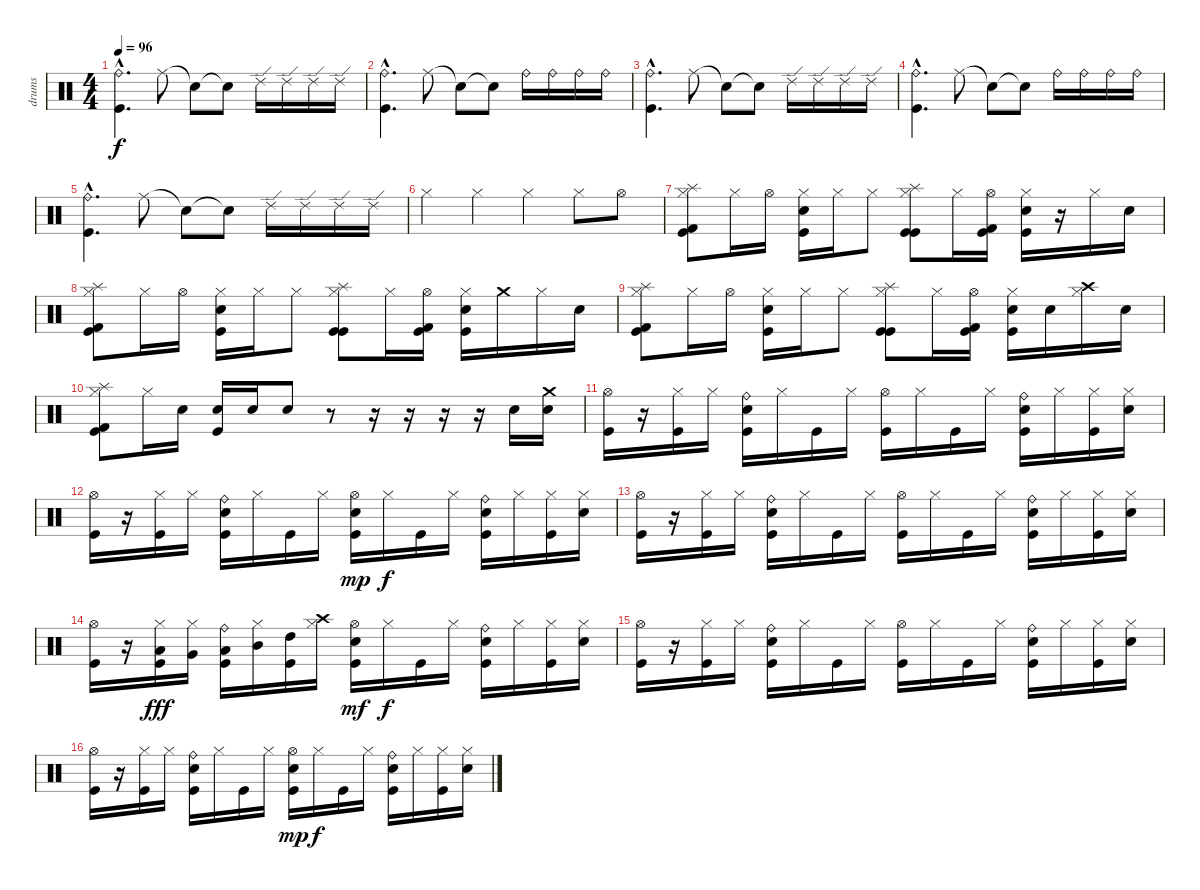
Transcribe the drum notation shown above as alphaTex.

\track ("drums" "drums") {instrument percussion}
\staff {score}
\articulation defaults
\ts (4 4)
\tempo 96
\clef neutral
\ks c
("Ride (bell)"{hac} "Kick (hit)"{hac}).4{d dy f} "Ride (middle)".8 "Snare (hit)"{t}.8 "Snare (hit)"{t}.8 "Ride (edge) 2".16 "Ride (edge) 2".16 "Ride (edge) 2".16 "Ride (edge) 2".16 |
("Ride (bell)"{hac} "Kick (hit)"{hac}).4{d} "Ride (middle)".8 "Snare (hit)"{t}.8 "Snare (hit)"{t}.8 "Ride (bell)".16 "Ride (bell)".16 "Ride (bell)".16 "Ride (bell)".16 |
("Ride (bell)"{hac} "Kick (hit)"{hac}).4{d} "Ride (middle)".8 "Snare (hit)"{t}.8 "Snare (hit)"{t}.8 "Ride (edge) 2".16 "Ride (edge) 2".16 "Ride (edge) 2".16 "Ride (edge) 2".16 |
("Ride (bell)"{hac} "Kick (hit)"{hac}).4{d} "Ride (middle)".8 "Snare (hit)"{t}.8 "Snare (hit)"{t}.8 "Ride (bell)".16 "Ride (bell)".16 "Ride (bell)".16 "Ride (bell)".16 |
("Ride (bell)"{hac} "Kick (hit)"{hac}).4{d} "Ride (middle)".8 "Snare (hit)"{t}.8 "Snare (hit)"{t}.8 "Ride (edge) 2".16 "Ride (edge) 2".16 "Ride (edge) 2".16 "Ride (edge) 2".16 |
"Hi-Hat (closed)".4 "Hi-Hat (closed)".4 "Hi-Hat (closed)".4 "Hi-Hat (closed)".8 "Hi-Hat (open)".8 |
("Hi-Hat (closed)" "Splash (hit)" "Kick (hit) 2" "Kick (hit)").8 "Hi-Hat (closed)".16 "Hi-Hat (open)".16 ("Hi-Hat (closed)" "Electric Snare (hit)" "Kick (hit)").16 "Hi-Hat (closed)".16 "Hi-Hat (closed)".8 ("Hi-Hat (closed)" "Splash (hit)" "Kick (hit)" "Kick (hit)").8 "Hi-Hat (closed)".16 ("Hi-Hat (open)" "Kick (hit)" "Kick (hit) 2").16 ("Hi-Hat (closed)" "Electric Snare (hit)" "Kick (hit)").16 r.16 "Hi-Hat (closed)".16 "Electric Snare (hit)".16 |
("Hi-Hat (closed)" "Splash (hit)" "Kick (hit) 2" "Kick (hit)").8 "Hi-Hat (closed)".16 "Hi-Hat (open)".16 ("Hi-Hat (closed)" "Electric Snare (hit)" "Kick (hit)").16 "Hi-Hat (closed)".16 "Hi-Hat (closed)".8 ("Hi-Hat (closed)" "Splash (hit)" "Kick (hit)" "Kick (hit)").8 "Hi-Hat (closed)".16 ("Hi-Hat (open)" "Kick (hit)" "Kick (hit) 2").16 ("Hi-Hat (closed)" "Electric Snare (hit)" "Kick (hit)").16 "Crash medium (hit)".16 "Hi-Hat (closed)".16 "Electric Snare (hit)".16 |
("Hi-Hat (closed)" "Splash (hit)" "Kick (hit) 2" "Kick (hit)").8 "Hi-Hat (closed)".16 "Hi-Hat (open)".16 ("Hi-Hat (closed)" "Electric Snare (hit)" "Kick (hit)").16 "Hi-Hat (closed)".16 "Hi-Hat (closed)".8 ("Hi-Hat (closed)" "Splash (hit)" "Kick (hit)" "Kick (hit)").8 "Hi-Hat (closed)".16 ("Hi-Hat (open)" "Kick (hit)" "Kick (hit) 2").16 ("Hi-Hat (closed)" "Electric Snare (hit)" "Kick (hit)").16 "Electric Snare (hit)".16 ("Hi-Hat (closed)" "Crash high (hit)").16 "Electric Snare (hit)".16 |
("Hi-Hat (closed)" "Splash (hit)" "Kick (hit) 2" "Kick (hit)").8 "Hi-Hat (closed)".16 "Electric Snare (hit)".16 ("Electric Snare (hit)" "Kick (hit)").16 "Electric Snare (hit)".16 "Electric Snare (hit)".8 r.8 r.16 r.16 r.16 r.16 "Electric Snare (hit)".16 ("Crash medium (hit)" "Electric Snare (hit)").16 |
("Hi-Hat (open)" "Kick (hit)").16 r.16 ("Hi-Hat (closed)" "Kick (hit)").16 "Hi-Hat (closed)".16 ("Ride (bell)" "Electric Snare (hit)" "Kick (hit)").16 "Hi-Hat (closed)".16 "Kick (hit)".16 "Hi-Hat (closed)".16 ("Hi-Hat (open)" "Kick (hit)").16 "Hi-Hat (closed)".16 "Kick (hit)".16 "Hi-Hat (closed)".16 ("Ride (bell)" "Electric Snare (hit)" "Kick (hit)").16 "Hi-Hat (closed)".16 ("Hi-Hat (closed)" "Kick (hit)").16 ("Hi-Hat (closed)" "Electric Snare (hit)").16 |
("Hi-Hat (open)" "Kick (hit)").16 r.16 ("Hi-Hat (closed)" "Kick (hit)").16 "Hi-Hat (closed)".16 ("Ride (bell)" "Electric Snare (hit)" "Kick (hit)").16 "Hi-Hat (closed)".16 "Kick (hit)".16 "Hi-Hat (closed)".16 ("Hi-Hat (open)" "Electric Snare (hit)" "Kick (hit)").16{dy mp} "Hi-Hat (closed)".16{dy f} "Kick (hit)".16 "Hi-Hat (closed)".16 ("Ride (bell)" "Electric Snare (hit)" "Kick (hit)").16 "Hi-Hat (closed)".16 ("Hi-Hat (closed)" "Kick (hit)").16 ("Hi-Hat (closed)" "Electric Snare (hit)").16 |
("Hi-Hat (open)" "Kick (hit)").16 r.16 ("Hi-Hat (closed)" "Kick (hit)").16 "Hi-Hat (closed)".16 ("Ride (bell)" "Electric Snare (hit)" "Kick (hit)").16 "Hi-Hat (closed)".16 "Kick (hit)".16 "Hi-Hat (closed)".16 ("Hi-Hat (open)" "Kick (hit)").16 "Hi-Hat (closed)".16 "Kick (hit)".16 "Hi-Hat (closed)".16 ("Ride (bell)" "Electric Snare (hit)" "Kick (hit)").16 "Hi-Hat (closed)".16 ("Hi-Hat (closed)" "Kick (hit)").16 ("Hi-Hat (closed)" "Electric Snare (hit)").16 |
("Hi-Hat (open)" "Kick (hit)").16 r.16 ("Hi-Hat (closed)" "Low Floor Tom (hit)" "Kick (hit)").16{dy fff} ("Hi-Hat (closed)" "Very Low Tom (hit)").16 ("Ride (bell)" "Low Tom (hit)" "Kick (hit)").16 ("Hi-Hat (closed)" "Mid Tom (hit)").16 ("High Tom (hit)" "Kick (hit)").16 ("Hi-Hat (closed)" "Crash high (hit)").16 ("Hi-Hat (open)" "Electric Snare (hit)" "Kick (hit)").16{dy mf} "Hi-Hat (closed)".16{dy f} "Kick (hit)".16 "Hi-Hat (closed)".16 ("Ride (bell)" "Electric Snare (hit)" "Kick (hit)").16 "Hi-Hat (closed)".16 ("Hi-Hat (closed)" "Kick (hit)").16 ("Hi-Hat (closed)" "Electric Snare (hit)").16 |
("Hi-Hat (open)" "Kick (hit)").16 r.16 ("Hi-Hat (closed)" "Kick (hit)").16 "Hi-Hat (closed)".16 ("Ride (bell)" "Electric Snare (hit)" "Kick (hit)").16 "Hi-Hat (closed)".16 "Kick (hit)".16 "Hi-Hat (closed)".16 ("Hi-Hat (open)" "Kick (hit)").16 "Hi-Hat (closed)".16 "Kick (hit)".16 "Hi-Hat (closed)".16 ("Ride (bell)" "Electric Snare (hit)" "Kick (hit)").16 "Hi-Hat (closed)".16 ("Hi-Hat (closed)" "Kick (hit)").16 ("Hi-Hat (closed)" "Electric Snare (hit)").16 |
("Hi-Hat (open)" "Kick (hit)").16 r.16 ("Hi-Hat (closed)" "Kick (hit)").16 "Hi-Hat (closed)".16 ("Ride (bell)" "Electric Snare (hit)" "Kick (hit)").16 "Hi-Hat (closed)".16 "Kick (hit)".16 "Hi-Hat (closed)".16 ("Hi-Hat (open)" "Electric Snare (hit)" "Kick (hit)").16{dy mp} "Hi-Hat (closed)".16{dy f} "Kick (hit)".16 "Hi-Hat (closed)".16 ("Ride (bell)" "Electric Snare (hit)" "Kick (hit)").16 "Hi-Hat (closed)".16 ("Hi-Hat (closed)" "Kick (hit)").16 ("Hi-Hat (closed)" "Electric Snare (hit)").16
